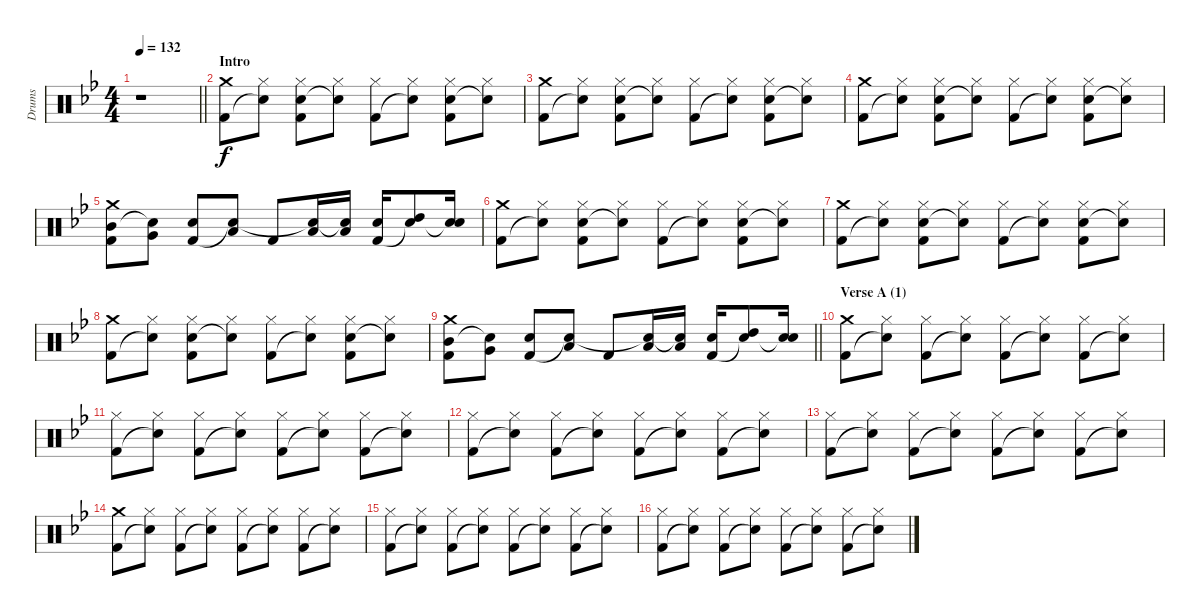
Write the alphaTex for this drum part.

\track ("Drums" "Drums") {instrument percussion}
\staff {score}
\articulation defaults
\ts (4 4)
\tempo 132
\clef neutral
\barLineRight lightlight
\ks bb
r.1{dy f} |
\section ("" "Intro")
("Crash medium (hit)" "Kick (hit) 2").8 ("Hi-Hat (closed)" "Snare (hit)"{t}).8 ("Hi-Hat (closed)" "Electric Snare (hit)" "Kick (hit) 2").8 ("Hi-Hat (closed)" "Snare (hit)"{t}).8 ("Hi-Hat (closed)" "Kick (hit) 2").8 ("Hi-Hat (closed)" "Snare (hit)"{t}).8 ("Hi-Hat (closed)" "Electric Snare (hit)" "Kick (hit) 2").8 ("Hi-Hat (closed)" "Snare (hit)"{t}).8 |
("Crash medium (hit)" "Kick (hit) 2").8 ("Hi-Hat (closed)" "Snare (hit)"{t}).8 ("Hi-Hat (closed)" "Electric Snare (hit)" "Kick (hit) 2").8 ("Hi-Hat (closed)" "Snare (hit)"{t}).8 ("Hi-Hat (closed)" "Kick (hit) 2").8 ("Hi-Hat (closed)" "Snare (hit)"{t}).8 ("Hi-Hat (closed)" "Electric Snare (hit)" "Kick (hit) 2").8 ("Hi-Hat (closed)" "Snare (hit)"{t}).8 |
("Crash medium (hit)" "Kick (hit) 2").8 ("Hi-Hat (closed)" "Snare (hit)"{t}).8 ("Hi-Hat (closed)" "Electric Snare (hit)" "Kick (hit) 2").8 ("Hi-Hat (closed)" "Snare (hit)"{t}).8 ("Hi-Hat (closed)" "Kick (hit) 2").8 ("Hi-Hat (closed)" "Snare (hit)"{t}).8 ("Hi-Hat (closed)" "Electric Snare (hit)" "Kick (hit) 2").8 ("Hi-Hat (closed)" "Snare (hit)"{t}).8 |
("Crash medium (hit)" "Mid Tom (hit)" "Kick (hit) 2").8 ("Very Low Tom (hit)" "Snare (hit)"{t}).8 ("Electric Snare (hit)" "Kick (hit) 2").8 ("Low Floor Tom (hit)" "Snare (hit)"{t}).8 "Kick (hit) 2".8 ("Low Floor Tom (hit)" "Snare (hit)"{t}).16 ("Low Floor Tom (hit)" "Snare (hit)"{t}).16 ("Electric Snare (hit)" "Kick (hit) 2").16 ("High Tom (hit)" "Snare (hit)"{t}).8 ("Electric Snare (hit)" "Snare (hit)"{t}).16 |
("Crash medium (hit)" "Kick (hit) 2").8 ("Hi-Hat (closed)" "Snare (hit)"{t}).8 ("Hi-Hat (closed)" "Electric Snare (hit)" "Kick (hit) 2").8 ("Hi-Hat (closed)" "Snare (hit)"{t}).8 ("Hi-Hat (closed)" "Kick (hit) 2").8 ("Hi-Hat (closed)" "Snare (hit)"{t}).8 ("Hi-Hat (closed)" "Electric Snare (hit)" "Kick (hit) 2").8 ("Hi-Hat (closed)" "Snare (hit)"{t}).8 |
("Crash medium (hit)" "Kick (hit) 2").8 ("Hi-Hat (closed)" "Snare (hit)"{t}).8 ("Hi-Hat (closed)" "Electric Snare (hit)" "Kick (hit) 2").8 ("Hi-Hat (closed)" "Snare (hit)"{t}).8 ("Hi-Hat (closed)" "Kick (hit) 2").8 ("Hi-Hat (closed)" "Snare (hit)"{t}).8 ("Hi-Hat (closed)" "Electric Snare (hit)" "Kick (hit) 2").8 ("Hi-Hat (closed)" "Snare (hit)"{t}).8 |
("Crash medium (hit)" "Kick (hit) 2").8 ("Hi-Hat (closed)" "Snare (hit)"{t}).8 ("Hi-Hat (closed)" "Electric Snare (hit)" "Kick (hit) 2").8 ("Hi-Hat (closed)" "Snare (hit)"{t}).8 ("Hi-Hat (closed)" "Kick (hit) 2").8 ("Hi-Hat (closed)" "Snare (hit)"{t}).8 ("Hi-Hat (closed)" "Electric Snare (hit)" "Kick (hit) 2").8 ("Hi-Hat (closed)" "Snare (hit)"{t}).8 |
\barLineRight lightlight
("Crash medium (hit)" "Mid Tom (hit)" "Kick (hit) 2").8 ("Very Low Tom (hit)" "Snare (hit)"{t}).8 ("Electric Snare (hit)" "Kick (hit) 2").8 ("Low Floor Tom (hit)" "Snare (hit)"{t}).8 "Kick (hit) 2".8 ("Low Floor Tom (hit)" "Snare (hit)"{t}).16 ("Low Floor Tom (hit)" "Snare (hit)"{t}).16 ("Electric Snare (hit)" "Kick (hit) 2").16 ("High Tom (hit)" "Snare (hit)"{t}).8 ("Electric Snare (hit)" "Snare (hit)"{t}).16 |
\section ("" "Verse A (1)")
("Crash medium (hit)" "Kick (hit) 2").8 ("Hi-Hat (closed)" "Snare (hit)"{t}).8 ("Hi-Hat (closed)" "Kick (hit) 2").8 ("Hi-Hat (closed)" "Snare (hit)"{t}).8 ("Hi-Hat (closed)" "Kick (hit) 2").8 ("Hi-Hat (closed)" "Snare (hit)"{t}).8 ("Hi-Hat (closed)" "Kick (hit) 2").8 ("Hi-Hat (closed)" "Snare (hit)"{t}).8 |
("Hi-Hat (closed)" "Kick (hit) 2").8 ("Hi-Hat (closed)" "Snare (hit)"{t}).8 ("Hi-Hat (closed)" "Kick (hit) 2").8 ("Hi-Hat (closed)" "Snare (hit)"{t}).8 ("Hi-Hat (closed)" "Kick (hit) 2").8 ("Hi-Hat (closed)" "Snare (hit)"{t}).8 ("Hi-Hat (closed)" "Kick (hit) 2").8 ("Hi-Hat (closed)" "Snare (hit)"{t}).8 |
("Hi-Hat (closed)" "Kick (hit) 2").8 ("Hi-Hat (closed)" "Snare (hit)"{t}).8 ("Hi-Hat (closed)" "Kick (hit) 2").8 ("Hi-Hat (closed)" "Snare (hit)"{t}).8 ("Hi-Hat (closed)" "Kick (hit) 2").8 ("Hi-Hat (closed)" "Snare (hit)"{t}).8 ("Hi-Hat (closed)" "Kick (hit) 2").8 ("Hi-Hat (closed)" "Snare (hit)"{t}).8 |
("Hi-Hat (closed)" "Kick (hit) 2").8 ("Hi-Hat (closed)" "Snare (hit)"{t}).8 ("Hi-Hat (closed)" "Kick (hit) 2").8 ("Hi-Hat (closed)" "Snare (hit)"{t}).8 ("Hi-Hat (closed)" "Kick (hit) 2").8 ("Hi-Hat (closed)" "Snare (hit)"{t}).8 ("Hi-Hat (closed)" "Kick (hit) 2").8 ("Hi-Hat (closed)" "Snare (hit)"{t}).8 |
("Crash medium (hit)" "Kick (hit) 2").8 ("Hi-Hat (closed)" "Snare (hit)"{t}).8 ("Hi-Hat (closed)" "Kick (hit) 2").8 ("Hi-Hat (closed)" "Snare (hit)"{t}).8 ("Hi-Hat (closed)" "Kick (hit) 2").8 ("Hi-Hat (closed)" "Snare (hit)"{t}).8 ("Hi-Hat (closed)" "Kick (hit) 2").8 ("Hi-Hat (closed)" "Snare (hit)"{t}).8 |
("Hi-Hat (closed)" "Kick (hit) 2").8 ("Hi-Hat (closed)" "Snare (hit)"{t}).8 ("Hi-Hat (closed)" "Kick (hit) 2").8 ("Hi-Hat (closed)" "Snare (hit)"{t}).8 ("Hi-Hat (closed)" "Kick (hit) 2").8 ("Hi-Hat (closed)" "Snare (hit)"{t}).8 ("Hi-Hat (closed)" "Kick (hit) 2").8 ("Hi-Hat (closed)" "Snare (hit)"{t}).8 |
("Hi-Hat (closed)" "Kick (hit) 2").8 ("Hi-Hat (closed)" "Snare (hit)"{t}).8 ("Hi-Hat (closed)" "Kick (hit) 2").8 ("Hi-Hat (closed)" "Snare (hit)"{t}).8 ("Hi-Hat (closed)" "Kick (hit) 2").8 ("Hi-Hat (closed)" "Snare (hit)"{t}).8 ("Hi-Hat (closed)" "Kick (hit) 2").8 ("Hi-Hat (closed)" "Snare (hit)"{t}).8
